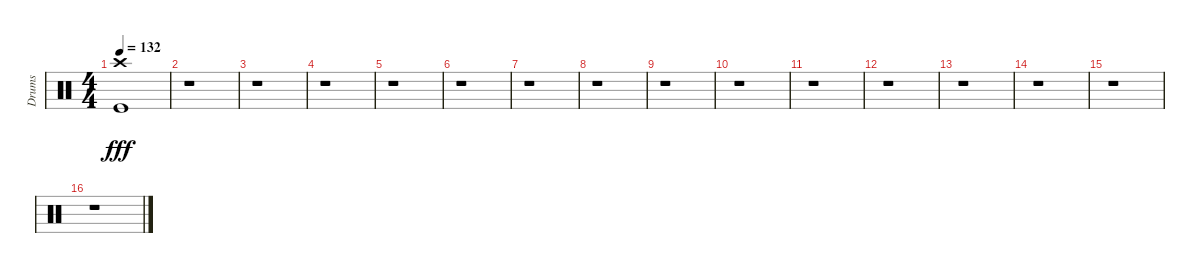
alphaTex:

\track ("Drums" "Drums") {instrument percussion}
\staff {score}
\articulation defaults
\ts (4 4)
\tempo 132
\clef neutral
\ks c
("Crash high (hit)" "Kick (hit)").1{dy fff} |
r.1 |
r.1 |
r.1 |
r.1 |
r.1 |
r.1 |
r.1 |
r.1 |
r.1 |
r.1 |
r.1 |
r.1 |
r.1 |
r.1 |
r.1
